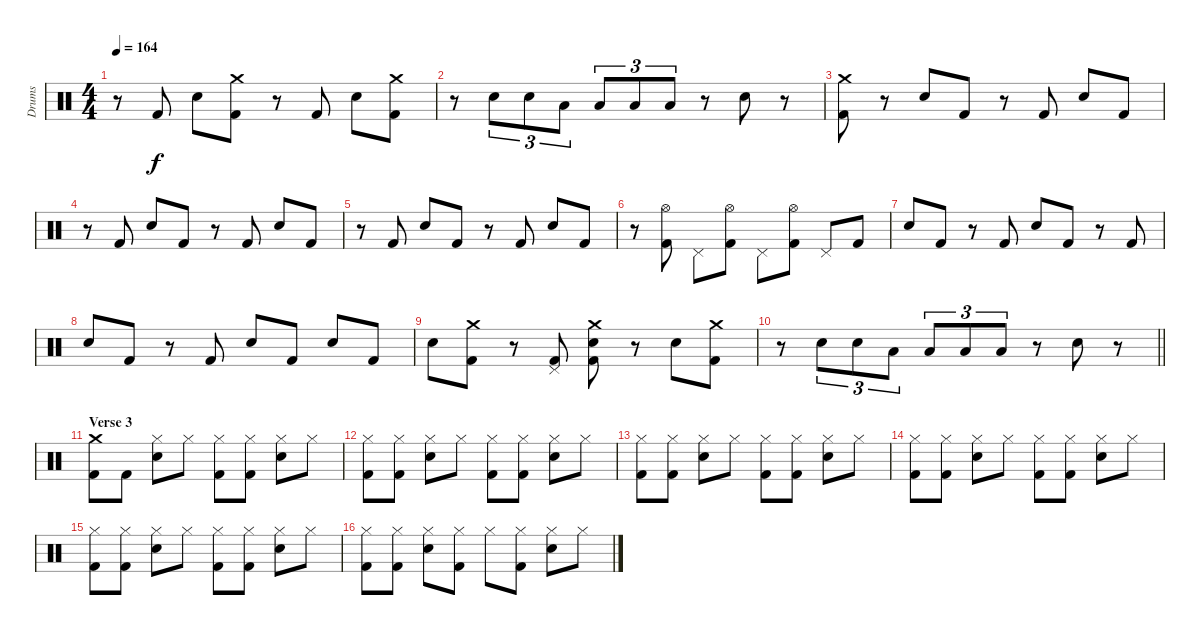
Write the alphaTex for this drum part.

\track ("Drums" "Drums") {instrument percussion}
\staff {score}
\articulation defaults
\ts (4 4)
\tempo 164
\clef neutral
\ks c
r.8{dy f} "Kick (hit) 2".8 "Snare (hit) 2".8 ("Crash medium (hit)" "Kick (hit) 2").8 r.8 "Kick (hit) 2".8 "Snare (hit) 2".8 ("Crash medium (hit)" "Kick (hit) 2").8 |
r.8 "Snare (hit) 2".8{tu (3 2)} "Snare (hit) 2".8{tu (3 2)} "Low Tom (hit)".8{tu (3 2)} "Low Tom (hit)".8{tu (3 2)} "Low Tom (hit)".8{tu (3 2)} "Low Tom (hit)".8{tu (3 2)} r.8 "Snare (hit) 2".8 r.8 |
("Crash medium (hit)" "Kick (hit) 2").8 r.8 "Snare (hit) 2".8 "Kick (hit) 2".8 r.8 "Kick (hit) 2".8 "Snare (hit) 2".8 "Kick (hit) 2".8 |
r.8 "Kick (hit) 2".8 "Snare (hit) 2".8 "Kick (hit) 2".8 r.8 "Kick (hit) 2".8 "Snare (hit) 2".8 "Kick (hit) 2".8 |
r.8 "Kick (hit) 2".8 "Snare (hit) 2".8 "Kick (hit) 2".8 r.8 "Kick (hit) 2".8 "Snare (hit) 2".8 "Kick (hit) 2".8 |
r.8 ("Hi-Hat (open)" "Kick (hit) 2").8 "Pedal Hi-Hat (hit)".8 ("Hi-Hat (open)" "Kick (hit) 2").8 "Pedal Hi-Hat (hit)".8 ("Hi-Hat (open)" "Kick (hit) 2").8 "Pedal Hi-Hat (hit)".8 "Kick (hit) 2".8 |
"Snare (hit) 2".8 "Kick (hit) 2".8 r.8 "Kick (hit) 2".8 "Snare (hit) 2".8 "Kick (hit) 2".8 r.8 "Kick (hit) 2".8 |
"Snare (hit) 2".8 "Kick (hit) 2".8 r.8 "Kick (hit) 2".8 "Snare (hit) 2".8 "Kick (hit) 2".8 "Snare (hit) 2".8 "Kick (hit) 2".8 |
"Snare (hit) 2".8 ("Crash medium (hit)" "Kick (hit) 2").8 r.8 ("Pedal Hi-Hat (hit)" "Kick (hit) 2").8 ("Crash medium (hit)" "Snare (hit) 2" "Kick (hit) 2").8 r.8 "Snare (hit) 2".8 ("Crash medium (hit)" "Kick (hit) 2").8 |
\barLineRight lightlight
r.8 "Snare (hit) 2".8{tu (3 2)} "Snare (hit) 2".8{tu (3 2)} "Low Tom (hit)".8{tu (3 2)} "Low Tom (hit)".8{tu (3 2)} "Low Tom (hit)".8{tu (3 2)} "Low Tom (hit)".8{tu (3 2)} r.8 "Snare (hit) 2".8 r.8 |
\section ("" "Verse 3")
("Crash medium (hit)" "Kick (hit) 2").8 "Kick (hit) 2".8 ("Hi-Hat (closed)" "Snare (hit) 2").8 "Hi-Hat (closed)".8 ("Hi-Hat (closed)" "Kick (hit) 2").8 ("Hi-Hat (closed)" "Kick (hit) 2").8 ("Hi-Hat (closed)" "Snare (hit) 2").8 "Hi-Hat (closed)".8 |
("Hi-Hat (closed)" "Kick (hit) 2").8 ("Hi-Hat (closed)" "Kick (hit) 2").8 ("Hi-Hat (closed)" "Snare (hit) 2").8 "Hi-Hat (closed)".8 ("Hi-Hat (closed)" "Kick (hit) 2").8 ("Hi-Hat (closed)" "Kick (hit) 2").8 ("Hi-Hat (closed)" "Snare (hit) 2").8 "Hi-Hat (closed)".8 |
("Hi-Hat (closed)" "Kick (hit) 2").8 ("Hi-Hat (closed)" "Kick (hit) 2").8 ("Hi-Hat (closed)" "Snare (hit) 2").8 "Hi-Hat (closed)".8 ("Hi-Hat (closed)" "Kick (hit) 2").8 ("Hi-Hat (closed)" "Kick (hit) 2").8 ("Hi-Hat (closed)" "Snare (hit) 2").8 "Hi-Hat (closed)".8 |
("Hi-Hat (closed)" "Kick (hit) 2").8 ("Hi-Hat (closed)" "Kick (hit) 2").8 ("Hi-Hat (closed)" "Snare (hit) 2").8 "Hi-Hat (closed)".8 ("Hi-Hat (closed)" "Kick (hit) 2").8 ("Hi-Hat (closed)" "Kick (hit) 2").8 ("Hi-Hat (closed)" "Snare (hit) 2").8 "Hi-Hat (closed)".8 |
("Hi-Hat (closed)" "Kick (hit) 2").8 ("Hi-Hat (closed)" "Kick (hit) 2").8 ("Hi-Hat (closed)" "Snare (hit) 2").8 "Hi-Hat (closed)".8 ("Hi-Hat (closed)" "Kick (hit) 2").8 ("Hi-Hat (closed)" "Kick (hit) 2").8 ("Hi-Hat (closed)" "Snare (hit) 2").8 "Hi-Hat (closed)".8 |
("Hi-Hat (closed)" "Kick (hit) 2").8 ("Hi-Hat (closed)" "Kick (hit) 2").8 ("Hi-Hat (closed)" "Snare (hit) 2").8 ("Hi-Hat (closed)" "Kick (hit) 2").8 "Hi-Hat (closed)".8 ("Hi-Hat (closed)" "Kick (hit) 2").8 ("Hi-Hat (closed)" "Snare (hit) 2").8 "Hi-Hat (closed)".8
